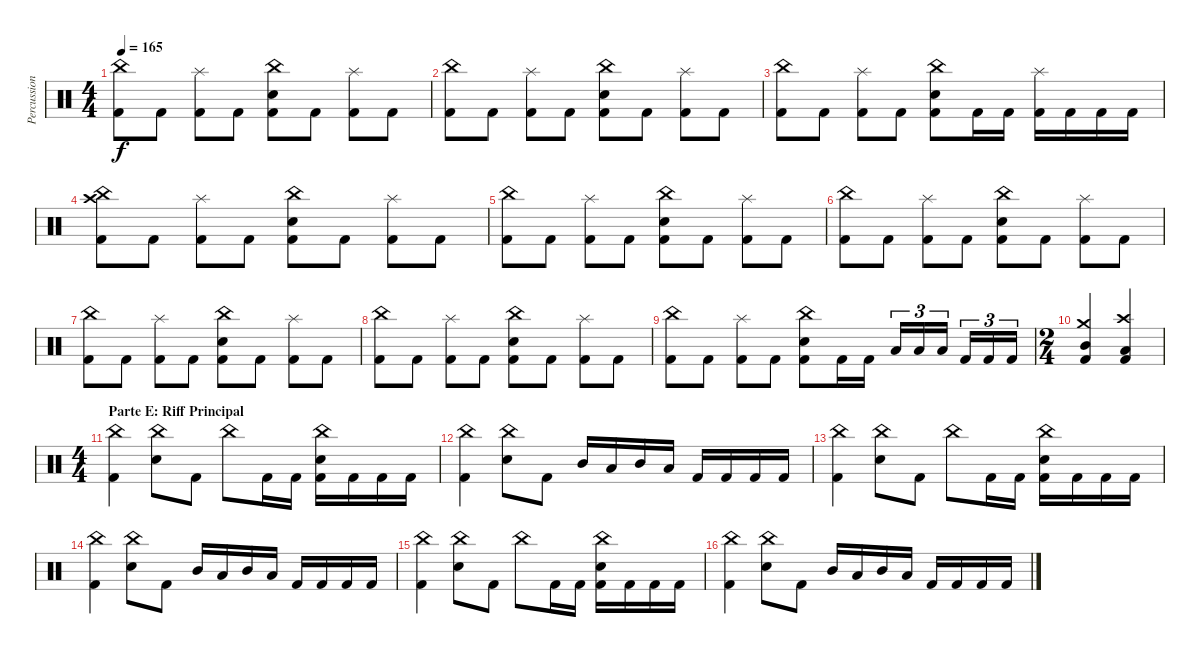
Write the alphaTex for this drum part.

\track ("Percussion" "Percussion") {instrument percussion}
\staff {score}
\articulation defaults
\ts (4 4)
\tempo 165
\clef neutral
\ks c
("China (hit)" "Kick (hit) 2").8{dy f} "Kick (hit) 2".8 ("Splash (hit)" "Kick (hit) 2").8 "Kick (hit) 2".8 ("China (hit)" "Snare (hit) 2" "Kick (hit) 2").8 "Kick (hit) 2".8 ("Splash (hit)" "Kick (hit) 2").8 "Kick (hit) 2".8 |
("China (hit)" "Kick (hit) 2").8 "Kick (hit) 2".8 ("Splash (hit)" "Kick (hit) 2").8 "Kick (hit) 2".8 ("China (hit)" "Snare (hit) 2" "Kick (hit) 2").8 "Kick (hit) 2".8 ("Splash (hit)" "Kick (hit) 2").8 "Kick (hit) 2".8 |
("China (hit)" "Kick (hit) 2").8 "Kick (hit) 2".8 ("Splash (hit)" "Kick (hit) 2").8 "Kick (hit) 2".8 ("China (hit)" "Snare (hit) 2" "Kick (hit) 2").8 "Kick (hit) 2".16 "Kick (hit) 2".16 ("Splash (hit)" "Kick (hit) 2").16 "Kick (hit) 2".16 "Kick (hit) 2".16 "Kick (hit) 2".16 |
("Crash high (hit)" "China (hit)" "Kick (hit) 2").8 "Kick (hit) 2".8 ("Splash (hit)" "Kick (hit) 2").8 "Kick (hit) 2".8 ("China (hit)" "Snare (hit) 2" "Kick (hit) 2").8 "Kick (hit) 2".8 ("Splash (hit)" "Kick (hit) 2").8 "Kick (hit) 2".8 |
("China (hit)" "Kick (hit) 2").8 "Kick (hit) 2".8 ("Splash (hit)" "Kick (hit) 2").8 "Kick (hit) 2".8 ("China (hit)" "Snare (hit) 2" "Kick (hit) 2").8 "Kick (hit) 2".8 ("Splash (hit)" "Kick (hit) 2").8 "Kick (hit) 2".8 |
("China (hit)" "Kick (hit) 2").8 "Kick (hit) 2".8 ("Splash (hit)" "Kick (hit) 2").8 "Kick (hit) 2".8 ("China (hit)" "Snare (hit) 2" "Kick (hit) 2").8 "Kick (hit) 2".8 ("Splash (hit)" "Kick (hit) 2").8 "Kick (hit) 2".8 |
("China (hit)" "Kick (hit) 2").8 "Kick (hit) 2".8 ("Splash (hit)" "Kick (hit) 2").8 "Kick (hit) 2".8 ("China (hit)" "Snare (hit) 2" "Kick (hit) 2").8 "Kick (hit) 2".8 ("Splash (hit)" "Kick (hit) 2").8 "Kick (hit) 2".8 |
("China (hit)" "Kick (hit) 2").8 "Kick (hit) 2".8 ("Splash (hit)" "Kick (hit) 2").8 "Kick (hit) 2".8 ("China (hit)" "Snare (hit) 2" "Kick (hit) 2").8 "Kick (hit) 2".8 ("Splash (hit)" "Kick (hit) 2").8 "Kick (hit) 2".8 |
("China (hit)" "Kick (hit) 2").8 "Kick (hit) 2".8 ("Splash (hit)" "Kick (hit) 2").8 "Kick (hit) 2".8 ("China (hit)" "Snare (hit) 2" "Kick (hit) 2").8 "Kick (hit) 2".16 "Kick (hit) 2".16 "Low Tom (hit)".16{tu (3 2)} "Low Tom (hit)".16{tu (3 2)} "Low Tom (hit)".16{tu (3 2)} "Kick (hit) 2".16{tu (3 2)} "Kick (hit) 2".16{tu (3 2)} "Kick (hit) 2".16{tu (3 2)} |
\ts (2 4)
("Crash medium (hit)" "Mid Tom (hit)" "Kick (hit) 2").4 ("Crash high (hit)" "Low Tom (hit)" "Kick (hit) 2").4 |
\ts (4 4)
\section ("" "Parte E: Riff Principal")
("China (hit)" "Kick (hit) 2").4 ("China (hit)" "Snare (hit) 2").8 "Kick (hit) 2".8 "China (hit)".8 "Kick (hit) 2".16 "Kick (hit) 2".16 ("China (hit)" "Snare (hit) 2" "Kick (hit) 2").16 "Kick (hit) 2".16 "Kick (hit) 2".16 "Kick (hit) 2".16 |
("China (hit)" "Kick (hit) 2").4 ("China (hit)" "Snare (hit) 2").8 "Kick (hit) 2".8 "Mid Tom (hit)".16 "Low Tom (hit)".16 "Mid Tom (hit)".16 "Low Tom (hit)".16 "Kick (hit) 2".16 "Kick (hit) 2".16 "Kick (hit) 2".16 "Kick (hit) 2".16 |
("China (hit)" "Kick (hit) 2").4 ("China (hit)" "Snare (hit) 2").8 "Kick (hit) 2".8 "China (hit)".8 "Kick (hit) 2".16 "Kick (hit) 2".16 ("China (hit)" "Snare (hit) 2" "Kick (hit) 2").16 "Kick (hit) 2".16 "Kick (hit) 2".16 "Kick (hit) 2".16 |
("China (hit)" "Kick (hit) 2").4 ("China (hit)" "Snare (hit) 2").8 "Kick (hit) 2".8 "Mid Tom (hit)".16 "Low Tom (hit)".16 "Mid Tom (hit)".16 "Low Tom (hit)".16 "Kick (hit) 2".16 "Kick (hit) 2".16 "Kick (hit) 2".16 "Kick (hit) 2".16 |
("China (hit)" "Kick (hit) 2").4 ("China (hit)" "Snare (hit) 2").8 "Kick (hit) 2".8 "China (hit)".8 "Kick (hit) 2".16 "Kick (hit) 2".16 ("China (hit)" "Snare (hit) 2" "Kick (hit) 2").16 "Kick (hit) 2".16 "Kick (hit) 2".16 "Kick (hit) 2".16 |
("China (hit)" "Kick (hit) 2").4 ("China (hit)" "Snare (hit) 2").8 "Kick (hit) 2".8 "Mid Tom (hit)".16 "Low Tom (hit)".16 "Mid Tom (hit)".16 "Low Tom (hit)".16 "Kick (hit) 2".16 "Kick (hit) 2".16 "Kick (hit) 2".16 "Kick (hit) 2".16
